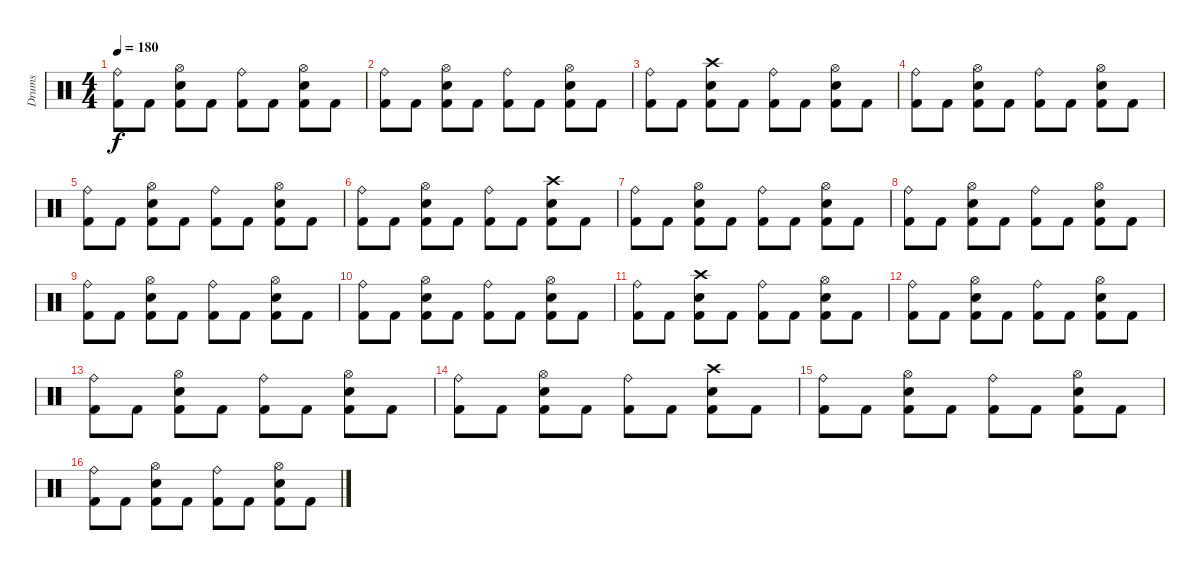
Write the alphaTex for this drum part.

\track ("Drums" "Drums") {instrument percussion}
\staff {score}
\articulation defaults
\ts (4 4)
\tempo 180
\clef neutral
\ks c
("Ride (bell)" "Kick (hit) 2").8{dy f} "Kick (hit) 2".8 ("Snare (hit) 2" "Hi-Hat (open)" "Kick (hit) 2").8 "Kick (hit) 2".8 ("Ride (bell)" "Kick (hit) 2").8 "Kick (hit) 2".8 ("Snare (hit) 2" "Hi-Hat (open)" "Kick (hit) 2").8 "Kick (hit) 2".8 |
("Ride (bell)" "Kick (hit) 2").8 "Kick (hit) 2".8 ("Snare (hit) 2" "Hi-Hat (open)" "Kick (hit) 2").8 "Kick (hit) 2".8 ("Ride (bell)" "Kick (hit) 2").8 "Kick (hit) 2".8 ("Snare (hit) 2" "Hi-Hat (open)" "Kick (hit) 2").8 "Kick (hit) 2".8 |
("Ride (bell)" "Kick (hit) 2").8 "Kick (hit) 2".8 ("Snare (hit) 2" "Crash high (hit)" "Kick (hit) 2").8 "Kick (hit) 2".8 ("Ride (bell)" "Kick (hit) 2").8 "Kick (hit) 2".8 ("Snare (hit) 2" "Hi-Hat (open)" "Kick (hit) 2").8 "Kick (hit) 2".8 |
("Ride (bell)" "Kick (hit) 2").8 "Kick (hit) 2".8 ("Snare (hit) 2" "Hi-Hat (open)" "Kick (hit) 2").8 "Kick (hit) 2".8 ("Ride (bell)" "Kick (hit) 2").8 "Kick (hit) 2".8 ("Snare (hit) 2" "Hi-Hat (open)" "Kick (hit) 2").8 "Kick (hit) 2".8 |
("Ride (bell)" "Kick (hit) 2").8 "Kick (hit) 2".8 ("Snare (hit) 2" "Hi-Hat (open)" "Kick (hit) 2").8 "Kick (hit) 2".8 ("Ride (bell)" "Kick (hit) 2").8 "Kick (hit) 2".8 ("Snare (hit) 2" "Hi-Hat (open)" "Kick (hit) 2").8 "Kick (hit) 2".8 |
("Ride (bell)" "Kick (hit) 2").8 "Kick (hit) 2".8 ("Snare (hit) 2" "Hi-Hat (open)" "Kick (hit) 2").8 "Kick (hit) 2".8 ("Ride (bell)" "Kick (hit) 2").8 "Kick (hit) 2".8 ("Snare (hit) 2" "Crash high (hit)" "Kick (hit) 2").8 "Kick (hit) 2".8 |
("Ride (bell)" "Kick (hit) 2").8 "Kick (hit) 2".8 ("Snare (hit) 2" "Hi-Hat (open)" "Kick (hit) 2").8 "Kick (hit) 2".8 ("Ride (bell)" "Kick (hit) 2").8 "Kick (hit) 2".8 ("Snare (hit) 2" "Hi-Hat (open)" "Kick (hit) 2").8 "Kick (hit) 2".8 |
("Ride (bell)" "Kick (hit) 2").8 "Kick (hit) 2".8 ("Snare (hit) 2" "Hi-Hat (open)" "Kick (hit) 2").8 "Kick (hit) 2".8 ("Ride (bell)" "Kick (hit) 2").8 "Kick (hit) 2".8 ("Snare (hit) 2" "Hi-Hat (open)" "Kick (hit) 2").8 "Kick (hit) 2".8 |
("Ride (bell)" "Kick (hit) 2").8 "Kick (hit) 2".8 ("Snare (hit) 2" "Hi-Hat (open)" "Kick (hit) 2").8 "Kick (hit) 2".8 ("Ride (bell)" "Kick (hit) 2").8 "Kick (hit) 2".8 ("Snare (hit) 2" "Hi-Hat (open)" "Kick (hit) 2").8 "Kick (hit) 2".8 |
("Ride (bell)" "Kick (hit) 2").8 "Kick (hit) 2".8 ("Snare (hit) 2" "Hi-Hat (open)" "Kick (hit) 2").8 "Kick (hit) 2".8 ("Ride (bell)" "Kick (hit) 2").8 "Kick (hit) 2".8 ("Snare (hit) 2" "Hi-Hat (open)" "Kick (hit) 2").8 "Kick (hit) 2".8 |
("Ride (bell)" "Kick (hit) 2").8 "Kick (hit) 2".8 ("Snare (hit) 2" "Crash high (hit)" "Kick (hit) 2").8 "Kick (hit) 2".8 ("Ride (bell)" "Kick (hit) 2").8 "Kick (hit) 2".8 ("Snare (hit) 2" "Hi-Hat (open)" "Kick (hit) 2").8 "Kick (hit) 2".8 |
("Ride (bell)" "Kick (hit) 2").8 "Kick (hit) 2".8 ("Snare (hit) 2" "Hi-Hat (open)" "Kick (hit) 2").8 "Kick (hit) 2".8 ("Ride (bell)" "Kick (hit) 2").8 "Kick (hit) 2".8 ("Snare (hit) 2" "Hi-Hat (open)" "Kick (hit) 2").8 "Kick (hit) 2".8 |
("Ride (bell)" "Kick (hit) 2").8 "Kick (hit) 2".8 ("Snare (hit) 2" "Hi-Hat (open)" "Kick (hit) 2").8 "Kick (hit) 2".8 ("Ride (bell)" "Kick (hit) 2").8 "Kick (hit) 2".8 ("Snare (hit) 2" "Hi-Hat (open)" "Kick (hit) 2").8 "Kick (hit) 2".8 |
("Ride (bell)" "Kick (hit) 2").8 "Kick (hit) 2".8 ("Snare (hit) 2" "Hi-Hat (open)" "Kick (hit) 2").8 "Kick (hit) 2".8 ("Ride (bell)" "Kick (hit) 2").8 "Kick (hit) 2".8 ("Snare (hit) 2" "Crash high (hit)" "Kick (hit) 2").8 "Kick (hit) 2".8 |
("Ride (bell)" "Kick (hit) 2").8 "Kick (hit) 2".8 ("Snare (hit) 2" "Hi-Hat (open)" "Kick (hit) 2").8 "Kick (hit) 2".8 ("Ride (bell)" "Kick (hit) 2").8 "Kick (hit) 2".8 ("Snare (hit) 2" "Hi-Hat (open)" "Kick (hit) 2").8 "Kick (hit) 2".8 |
("Ride (bell)" "Kick (hit) 2").8 "Kick (hit) 2".8 ("Snare (hit) 2" "Hi-Hat (open)" "Kick (hit) 2").8 "Kick (hit) 2".8 ("Ride (bell)" "Kick (hit) 2").8 "Kick (hit) 2".8 ("Snare (hit) 2" "Hi-Hat (open)" "Kick (hit) 2").8 "Kick (hit) 2".8
